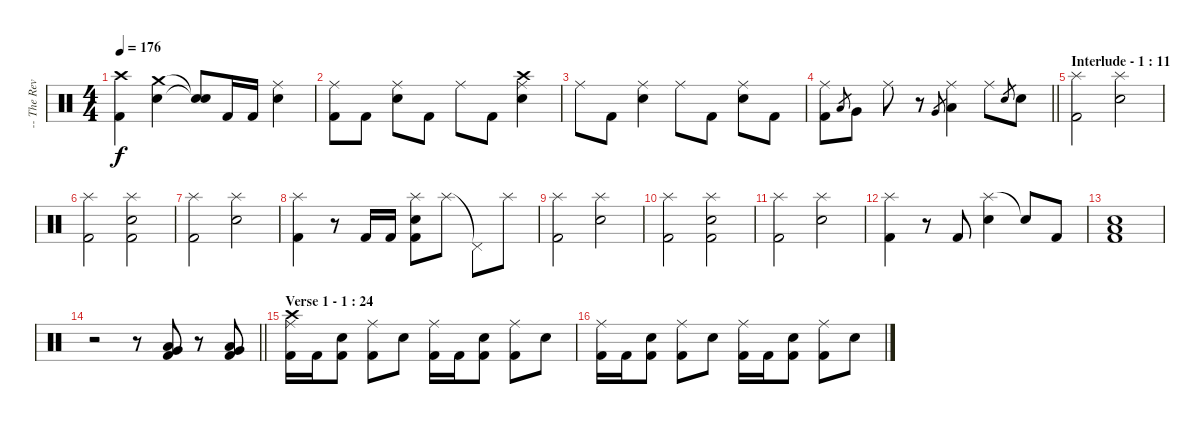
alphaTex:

\track ("-- The Reverend - Drums" "-- The Rev") {instrument percussion}
\staff {score}
\articulation defaults
\ts (4 4)
\tempo 176
\clef neutral
\ks c
("Crash high (hit)" "Kick (hit) 2").4{dy f} ("Crash medium (hit)" "Snare (hit) 2").4 ("Snare (hit)"{t} "Snare (hit)"{t}).8 "Kick (hit) 2".16 "Kick (hit) 2".16 ("Ride (middle)" "Snare (hit) 2").4 |
("Ride (middle)" "Kick (hit) 2").8 "Kick (hit) 2".8 ("Ride (middle)" "Snare (hit) 2").8 "Kick (hit) 2".8 "Ride (middle)".8 "Kick (hit) 2".8 ("Crash high (hit)" "Ride (middle)" "Snare (hit) 2").4 |
"Ride (middle)".8 "Kick (hit) 2".8 ("Ride (middle)" "Snare (hit) 2").4 "Ride (middle)".8 "Kick (hit) 2".8 ("Ride (middle)" "Snare (hit) 2").8 "Kick (hit) 2".8 |
\barLineRight lightlight
("Ride (middle)" "Kick (hit) 2").8 "Low Tom (hit)".8{gr} "Very Low Tom (hit)".8 "Ride (middle)".8 r.8 "Very Low Tom (hit)".8{gr} ("Ride (middle)" "Low Floor Tom (hit)").4 "Ride (middle)".8 "Snare (hit) 2".8{gr} "Snare (hit) 2".8 |
\section ("" "Interlude - 1 : 11")
("Splash (hit)" "Kick (hit) 2").2 ("Splash (hit)" "Snare (hit) 2").2 |
("Splash (hit)" "Kick (hit) 2").2 ("Splash (hit)" "Snare (hit) 2" "Kick (hit) 2").2 |
("Splash (hit)" "Kick (hit) 2").2 ("Splash (hit)" "Snare (hit) 2").2 |
("Splash (hit)" "Kick (hit) 2").4 r.8 "Kick (hit) 2".16 "Kick (hit) 2".16 ("Splash (hit)" "Snare (hit) 2" "Kick (hit) 2").8 "Splash (hit)".8 "Pedal Hi-Hat (hit)"{t}.8 "Splash (hit)".8 |
("Splash (hit)" "Kick (hit) 2").2 ("Splash (hit)" "Snare (hit) 2").2 |
("Splash (hit)" "Kick (hit) 2").2 ("Splash (hit)" "Snare (hit) 2" "Kick (hit) 2").2 |
("Splash (hit)" "Kick (hit) 2").2 ("Splash (hit)" "Snare (hit) 2").2 |
("Splash (hit)" "Kick (hit) 2").4 r.8 "Kick (hit) 2".8 ("Splash (hit)" "Snare (hit) 2").4 "Snare (hit)"{t}.8 "Kick (hit) 2".8 |
("Low Tom (hit)" "Snare (hit) 2" "Kick (hit) 2").1 |
\barLineRight lightlight
r.2 r.8 ("Very Low Tom (hit)" "Low Floor Tom (hit)" "Kick (hit) 2").8 r.8 ("Very Low Tom (hit)" "Low Floor Tom (hit)" "Kick (hit) 2").8 |
\section ("" "Verse 1 - 1 : 24")
("Crash high (hit)" "Ride (middle)" "Kick (hit) 2").16 "Kick (hit) 2".16 ("Electric Snare (hit)" "Kick (hit) 2").8 ("Ride (middle)" "Kick (hit) 2").8 "Electric Snare (hit)".8 ("Ride (middle)" "Kick (hit) 2").16 "Kick (hit) 2".16 ("Electric Snare (hit)" "Kick (hit) 2").8 ("Ride (middle)" "Kick (hit) 2").8 "Electric Snare (hit)".8 |
("Ride (middle)" "Kick (hit) 2").16 "Kick (hit) 2".16 ("Electric Snare (hit)" "Kick (hit) 2").8 ("Ride (middle)" "Kick (hit) 2").8 "Electric Snare (hit)".8 ("Ride (middle)" "Kick (hit) 2").16 "Kick (hit) 2".16 ("Electric Snare (hit)" "Kick (hit) 2").8 ("Ride (middle)" "Kick (hit) 2").8 "Electric Snare (hit)".8
